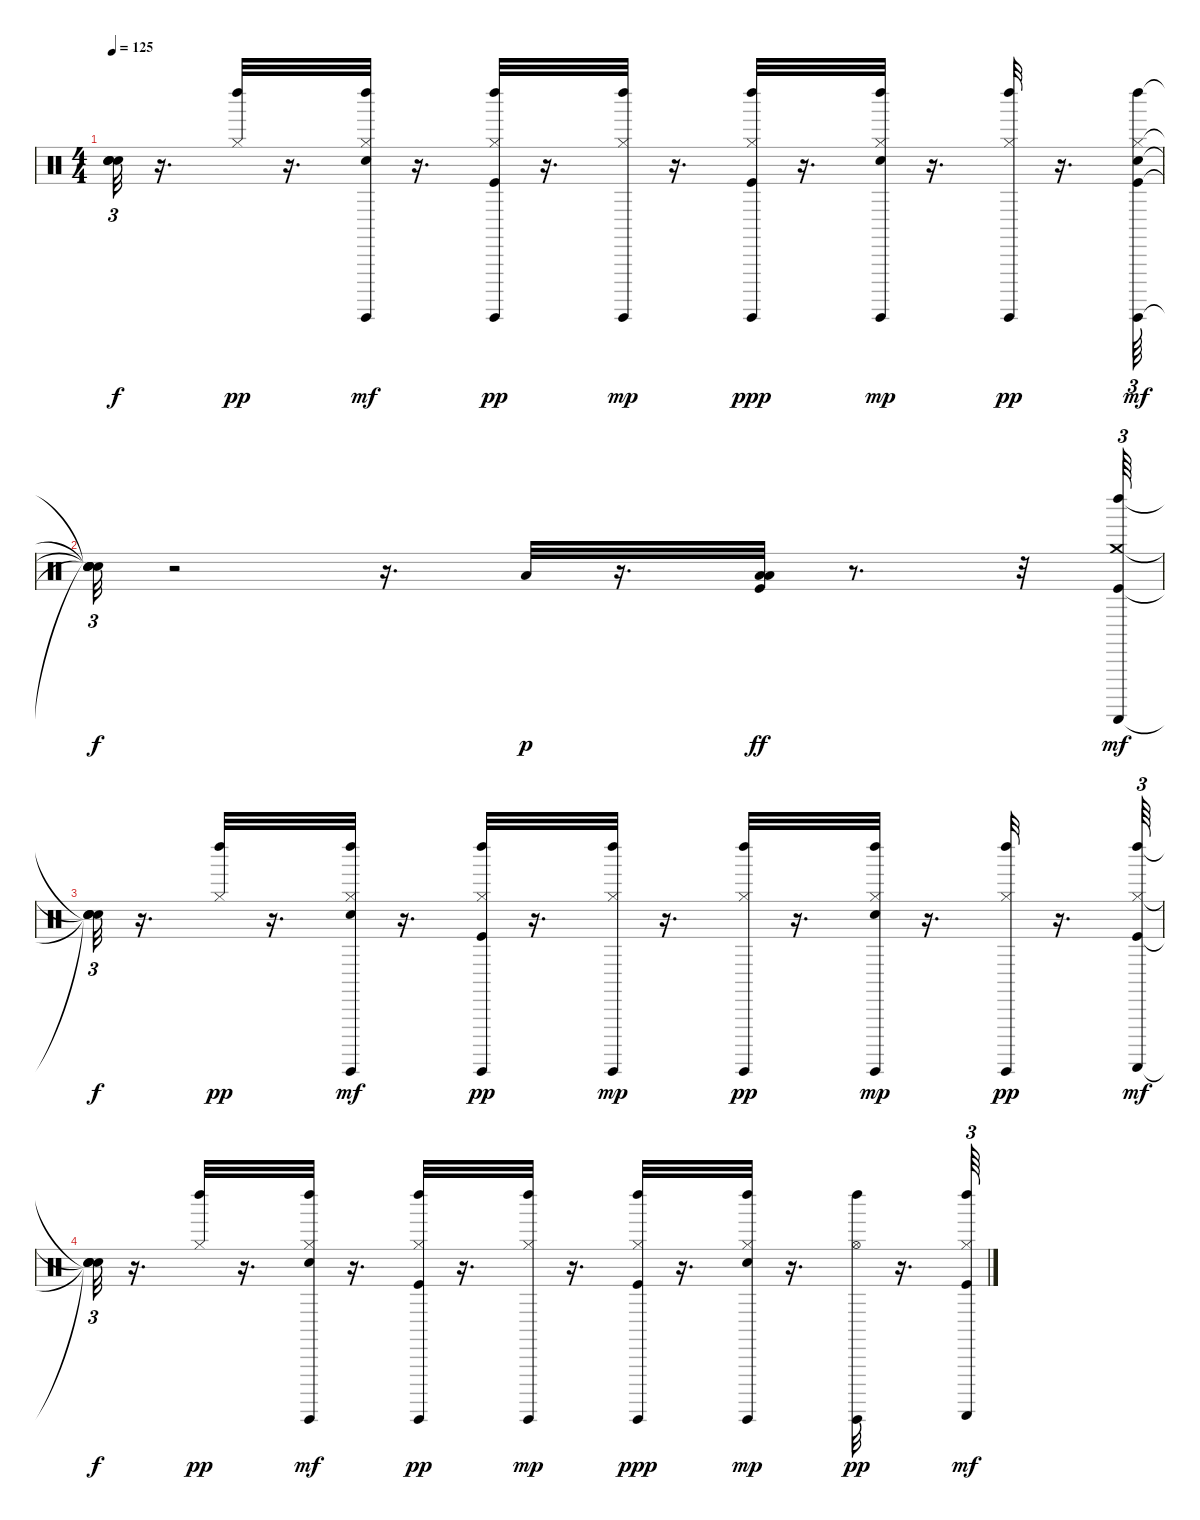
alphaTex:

\track "" {instrument percussion}
\staff {score}
\articulation defaults
\ts (4 4)
\tempo 125
\clef neutral
\ks c
("Snare (hit)"{t} "Snare (hit)"{t} "Snare (hit)"{t} "Snare (hit)"{t}).32{tu (3 2) dy f} r.16{d} ("Hi-Hat (closed)" "Left Maraca (hit)").32{dy pp} r.16{d} ("Hi-Hat (closed)" "Left Maraca (hit)" "Electric Snare (hit)" "Guiro (hit)").32{dy mf} r.16{d} ("Left Maraca (hit)" "Hi-Hat (closed)" "Kick (hit)" "Guiro (hit)").32{dy pp} r.16{d} ("Hi-Hat (closed)" "Left Maraca (hit)" "Guiro (hit)").32{dy mp} r.16{d} ("Left Maraca (hit)" "Kick (hit)" "Hi-Hat (closed)" "Guiro (hit)").32{dy ppp} r.16{d} ("Hi-Hat (closed)" "Left Maraca (hit)" "Electric Snare (hit)" "Guiro (hit)").32{dy mp} r.16{d} ("Hi-Hat (closed)" "Left Maraca (hit)" "Guiro (hit)").32{dy pp} r.16{d} ("Kick (hit)" "Electric Snare (hit)" "Left Maraca (hit)" "Hi-Hat (closed)" "Guiro (hit)").64{tu (3 2) dy mf} |
("Snare (hit)"{t} "Snare (hit)"{t} "Snare (hit)"{t} "Snare (hit)"{t} "Snare (hit)"{t}).32{tu (3 2) dy f} r.2 r.16{d} "Low Tom (hit)".32{dy p} r.16{d} ("Low Tom (hit)" "Kick (hit)" "Low Floor Tom (hit)").32{dy ff} r.8{d} r.32 ("Left Maraca (hit)" "Crash medium (hit)" "Kick (hit)" "Guiro (scrap-return)").64{tu (3 2) dy mf} |
("Snare (hit)"{t} "Snare (hit)"{t} "Snare (hit)"{t} "Snare (hit)"{t}).32{tu (3 2) dy f} r.16{d} ("Left Maraca (hit)" "Hi-Hat (closed)").32{dy pp} r.16{d} ("Electric Snare (hit)" "Hi-Hat (closed)" "Left Maraca (hit)" "Guiro (hit)").32{dy mf} r.16{d} ("Kick (hit)" "Hi-Hat (closed)" "Left Maraca (hit)" "Guiro (hit)").32{dy pp} r.16{d} ("Left Maraca (hit)" "Hi-Hat (closed)" "Guiro (hit)").32{dy mp} r.16{d} ("Hi-Hat (closed)" "Left Maraca (hit)" "Guiro (hit)").32{dy pp} r.16{d} ("Electric Snare (hit)" "Hi-Hat (closed)" "Left Maraca (hit)" "Guiro (hit)").32{dy mp} r.16{d} ("Left Maraca (hit)" "Hi-Hat (closed)" "Guiro (hit)").32{dy pp} r.16{d} ("Left Maraca (hit)" "Hi-Hat (closed)" "Kick (hit)" "Guiro (scrap-return)").64{tu (3 2) dy mf} |
("Snare (hit)"{t} "Snare (hit)"{t} "Snare (hit)"{t} "Snare (hit)"{t}).32{tu (3 2) dy f} r.16{d} ("Left Maraca (hit)" "Hi-Hat (closed)").32{dy pp} r.16{d} ("Left Maraca (hit)" "Electric Snare (hit)" "Hi-Hat (closed)" "Guiro (hit)").32{dy mf} r.16{d} ("Left Maraca (hit)" "Hi-Hat (closed)" "Kick (hit)" "Guiro (hit)").32{dy pp} r.16{d} ("Left Maraca (hit)" "Hi-Hat (closed)" "Guiro (hit)").32{dy mp} r.16{d} ("Kick (hit)" "Left Maraca (hit)" "Hi-Hat (closed)" "Guiro (hit)").32{dy ppp} r.16{d} ("Electric Snare (hit)" "Hi-Hat (closed)" "Left Maraca (hit)" "Guiro (hit)").32{dy mp} r.16{d} ("Hi-Hat (open)" "Left Maraca (hit)" "Guiro (hit)").32{dy pp} r.16{d} ("Left Maraca (hit)" "Hi-Hat (closed)" "Kick (hit)" "Guiro (scrap-return)").64{tu (3 2) dy mf}
